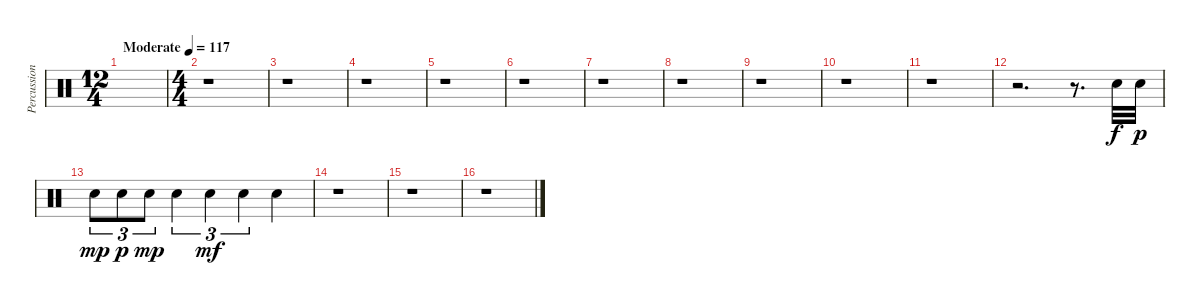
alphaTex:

\track ("Percussion" "Percussion") {instrument percussion}
\staff {score}
\articulation defaults
\ts (12 4)
\tempo (117 "Moderate")
\clef neutral
\ks c
|
\ts (4 4)
r.1 |
r.1 |
r.1 |
r.1 |
r.1 |
r.1 |
r.1 |
r.1 |
r.1 |
r.1 |
r.2{d} r.8{d} "Snare (hit) 2".32{volume 7 balance 14} "Snare (hit) 2".32{dy p} |
"Snare (hit) 2".8{tu (3 2) dy mp} "Snare (hit) 2".8{tu (3 2) dy p} "Snare (hit) 2".8{tu (3 2) dy mp} "Snare (hit) 2".4{tu (3 2)} "Snare (hit) 2".4{tu (3 2) dy mf} "Snare (hit) 2".4{tu (3 2)} "Snare (hit) 2".4 |
r.1 |
r.1 |
r.1
